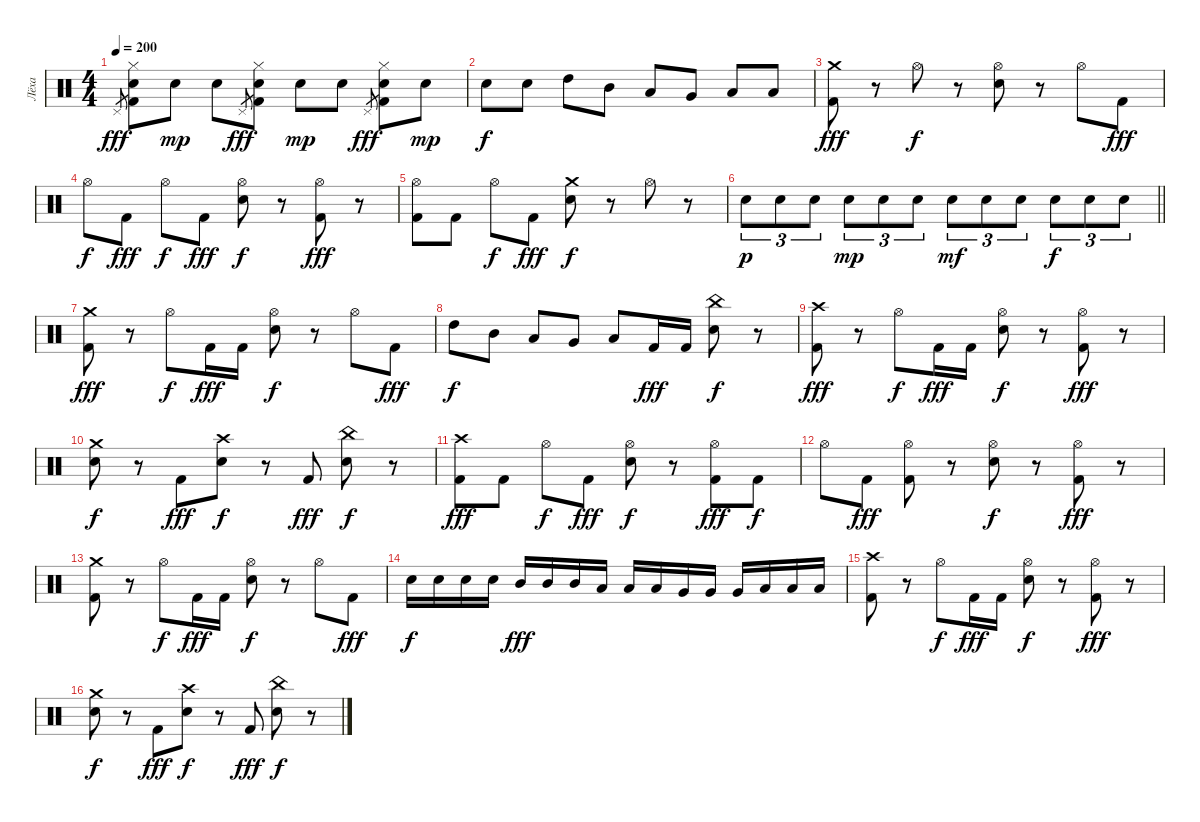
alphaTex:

\track ("Лёха" "Лёха") {instrument percussion}
\staff {score}
\articulation defaults
\ts (4 4)
\tempo 200
\clef neutral
\ks c "Pedal Hi-Hat (hit)".8{gr dy fff}
("Hi-Hat (closed)" "Electric Snare (hit)" "Kick (hit) 2").8 "Electric Snare (hit)".8{dy mp} "Electric Snare (hit)".8 "Pedal Hi-Hat (hit)".8{gr dy fff} ("Hi-Hat (closed)" "Electric Snare (hit)" "Kick (hit) 2").8 "Electric Snare (hit)".8{dy mp} "Electric Snare (hit)".8 "Pedal Hi-Hat (hit)".8{gr dy fff} ("Hi-Hat (closed)" "Electric Snare (hit)" "Kick (hit) 2").8 "Electric Snare (hit)".8{dy mp} |
"Electric Snare (hit)".8{dy f} "Electric Snare (hit)".8 "High Tom (hit)".8 "Mid Tom (hit)".8 "Low Tom (hit)".8 "Very Low Tom (hit)".8 "Low Floor Tom (hit)".8 "Low Floor Tom (hit)".8 |
("Crash medium (hit)" "Kick (hit) 2").8{dy fff} r.8 "Hi-Hat (open)".8{dy f} r.8 ("Hi-Hat (open)" "Electric Snare (hit)").8 r.8 "Hi-Hat (open)".8 "Kick (hit) 2".8{dy fff} |
"Hi-Hat (open)".8{dy f} "Kick (hit) 2".8{dy fff} "Hi-Hat (open)".8{dy f} "Kick (hit) 2".8{dy fff} ("Hi-Hat (open)" "Electric Snare (hit)").8{dy f} r.8 ("Hi-Hat (open)" "Kick (hit) 2").8{dy fff} r.8 |
("Hi-Hat (open)" "Kick (hit) 2").8 "Kick (hit) 2".8 "Hi-Hat (open)".8{dy f} "Kick (hit) 2".8{dy fff} ("Crash medium (hit)" "Electric Snare (hit)").8{dy f} r.8 "Hi-Hat (open)".8 r.8 |
\barLineRight lightlight "Electric Snare (hit)".8{tu (3 2) dy p} "Electric Snare (hit)".8{tu (3 2)} "Electric Snare (hit)".8{tu (3 2)} "Electric Snare (hit)".8{tu (3 2) dy mp} "Electric Snare (hit)".8{tu (3 2)} "Electric Snare (hit)".8{tu (3 2)} "Electric Snare (hit)".8{tu (3 2) dy mf} "Electric Snare (hit)".8{tu (3 2)} "Electric Snare (hit)".8{tu (3 2)} "Electric Snare (hit)".8{tu (3 2) dy f} "Electric Snare (hit)".8{tu (3 2)} "Electric Snare (hit)".8{tu (3 2)}
|
\section ("" "")
("Crash medium (hit)" "Kick (hit) 2").8{dy fff} r.8 "Hi-Hat (open)".8{dy f} "Kick (hit) 2".16{dy fff} "Kick (hit) 2".16 ("Hi-Hat (open)" "Electric Snare (hit)").8{dy f} r.8 "Hi-Hat (open)".8 "Kick (hit) 2".8{dy fff} |
"High Tom (hit)".8{dy f} "Mid Tom (hit)".8 "Low Tom (hit)".8 "Very Low Tom (hit)".8 "Low Floor Tom (hit)".8 "Kick (hit) 2".16{dy fff} "Kick (hit) 2".16 ("China (hit)" "Electric Snare (hit)").8{dy f} r.8 |
("Crash high (hit)" "Kick (hit) 2").8{dy fff} r.8 "Hi-Hat (open)".8{dy f} "Kick (hit) 2".16{dy fff} "Kick (hit) 2".16 ("Hi-Hat (open)" "Electric Snare (hit)").8{dy f} r.8 ("Hi-Hat (open)" "Kick (hit) 2").8{dy fff} r.8 |
("Crash medium (hit)" "Electric Snare (hit)").8{dy f} r.8 "Kick (hit) 2".8{dy fff} ("Crash high (hit)" "Electric Snare (hit)").8{dy f} r.8 "Kick (hit) 2".8{dy fff} ("China (hit)" "Electric Snare (hit)").8{dy f} r.8 |
("Crash high (hit)" "Kick (hit) 2").8{dy fff} "Kick (hit) 2".8 "Hi-Hat (open)".8{dy f} "Kick (hit) 2".8{dy fff} ("Hi-Hat (open)" "Electric Snare (hit)").8{dy f} r.8 ("Hi-Hat (open)" "Kick (hit) 2").8{dy fff} "Kick (hit) 2".8{dy f} |
"Hi-Hat (open)".8 "Kick (hit) 2".8{dy fff} ("Hi-Hat (open)" "Kick (hit) 2").8 r.8 ("Hi-Hat (open)" "Electric Snare (hit)").8{dy f} r.8 ("Hi-Hat (open)" "Kick (hit) 2").8{dy fff} r.8 |
("Crash medium (hit)" "Kick (hit) 2").8 r.8 "Hi-Hat (open)".8{dy f} "Kick (hit) 2".16{dy fff} "Kick (hit) 2".16 ("Hi-Hat (open)" "Electric Snare (hit)").8{dy f} r.8 "Hi-Hat (open)".8 "Kick (hit) 2".8{dy fff} |
"Electric Snare (hit)".16{dy f} "Electric Snare (hit)".16 "Electric Snare (hit)".16 "Electric Snare (hit)".16 "Mid Tom (hit)".16{dy fff} "Mid Tom (hit)".16 "Mid Tom (hit)".16 "Low Tom (hit)".16 "Low Tom (hit)".16 "Low Tom (hit)".16 "Very Low Tom (hit)".16 "Very Low Tom (hit)".16 "Very Low Tom (hit)".16 "Low Floor Tom (hit)".16 "Low Floor Tom (hit)".16 "Low Floor Tom (hit)".16 |
("Crash high (hit)" "Kick (hit) 2").8 r.8 "Hi-Hat (open)".8{dy f} "Kick (hit) 2".16{dy fff} "Kick (hit) 2".16 ("Hi-Hat (open)" "Electric Snare (hit)").8{dy f} r.8 ("Hi-Hat (open)" "Kick (hit) 2").8{dy fff} r.8 |
("Crash medium (hit)" "Electric Snare (hit)").8{dy f} r.8 "Kick (hit) 2".8{dy fff} ("Crash high (hit)" "Electric Snare (hit)").8{dy f} r.8 "Kick (hit) 2".8{dy fff} ("China (hit)" "Electric Snare (hit)").8{dy f} r.8
